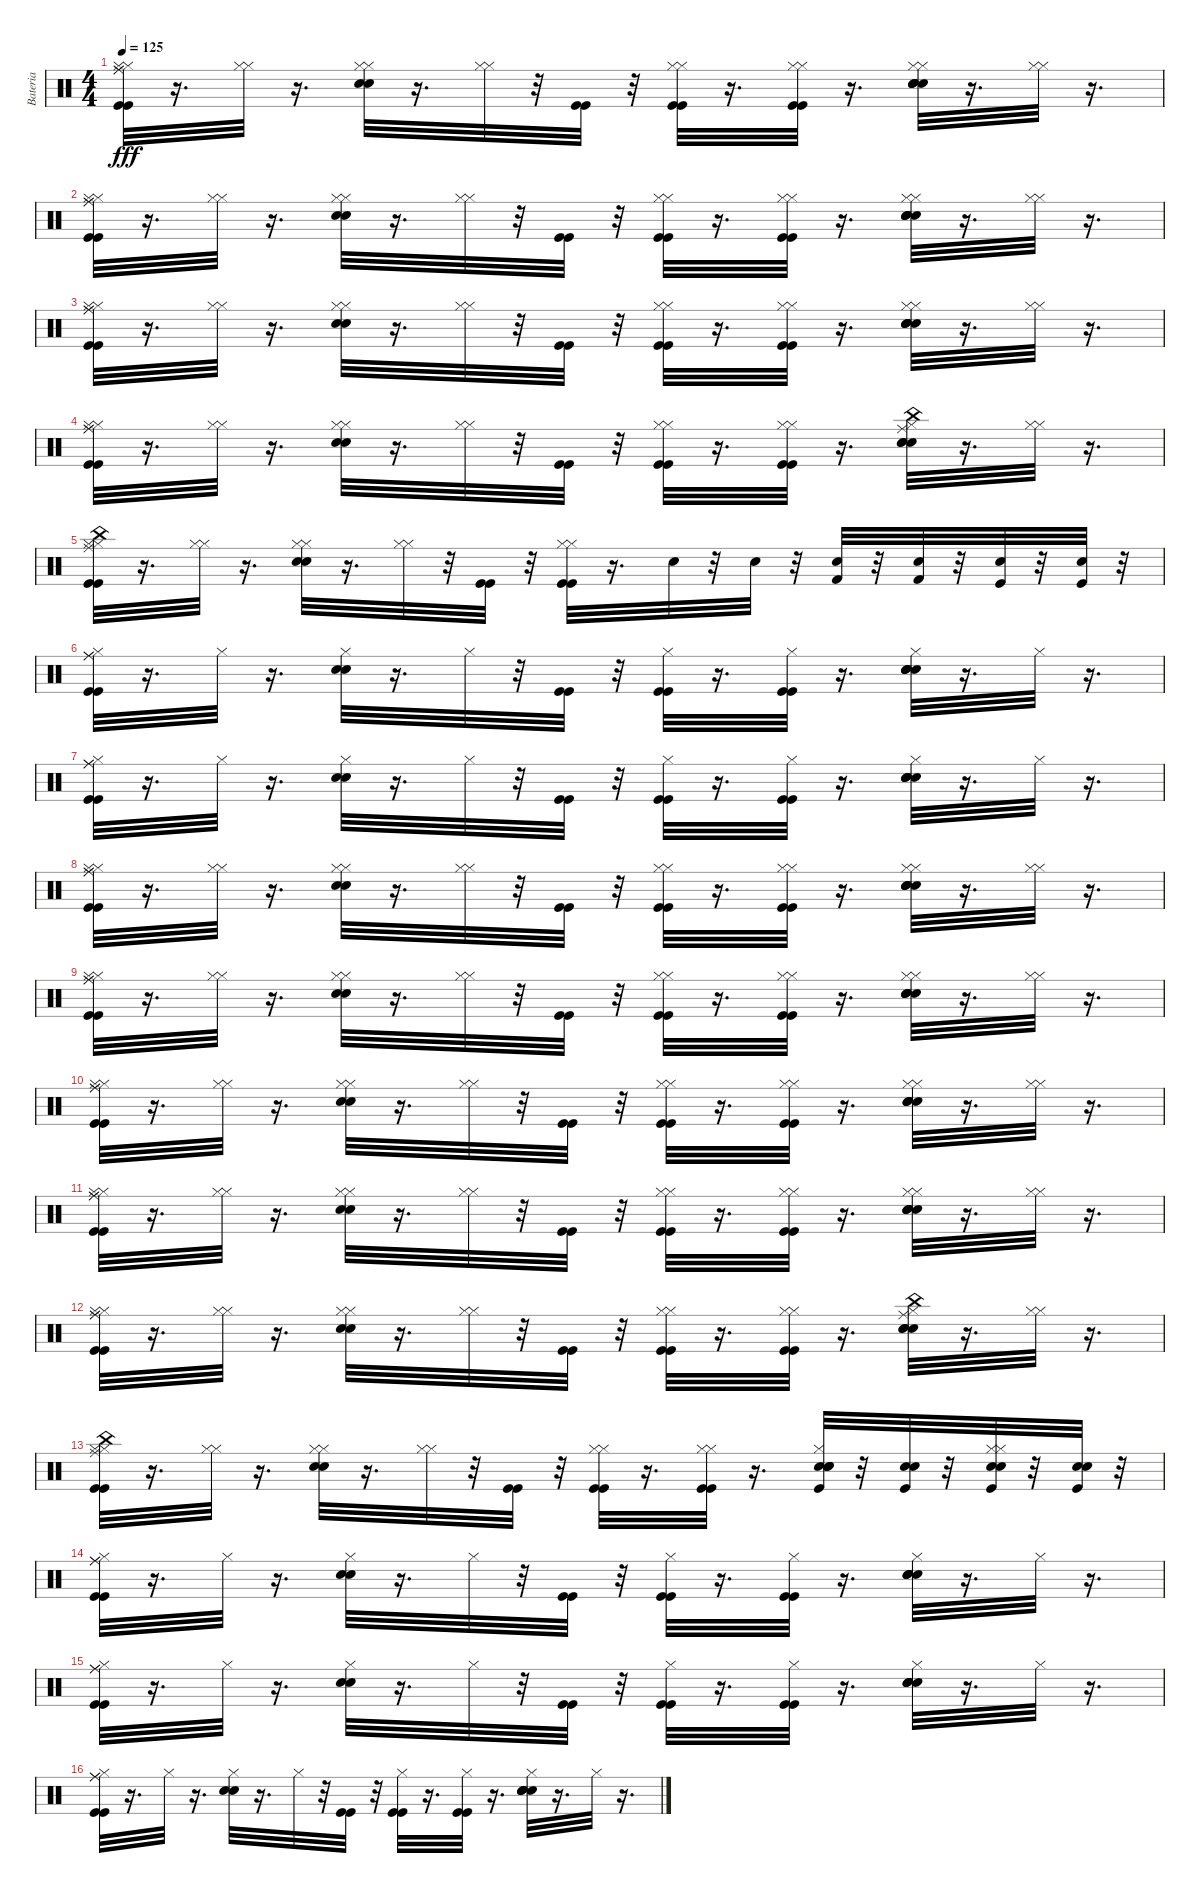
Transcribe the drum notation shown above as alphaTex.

\track ("Bateria" "Bateria") {instrument percussion}
\staff {score}
\articulation defaults
\ts (4 4)
\tempo 125
\clef neutral
\ks c
("Kick (hit)" "Hi-Hat (closed)" "Ride (middle)" "Kick (hit)" "Hi-Hat (closed)" "Ride (middle)").32{dy fff} r.16{d} ("Hi-Hat (closed)" "Hi-Hat (closed)").32 r.16{d} ("Snare (hit) 2" "Electric Snare (hit)" "Hi-Hat (closed)" "Hi-Hat (closed)").32 r.16{d} ("Hi-Hat (closed)" "Hi-Hat (closed)").32 r.32 ("Kick (hit)" "Kick (hit)").32 r.32 ("Kick (hit)" "Hi-Hat (closed)" "Kick (hit)" "Hi-Hat (closed)").32 r.16{d} ("Kick (hit)" "Hi-Hat (closed)" "Kick (hit)" "Hi-Hat (closed)").32 r.16{d} ("Snare (hit) 2" "Electric Snare (hit)" "Hi-Hat (closed)" "Snare (hit) 2" "Electric Snare (hit)" "Hi-Hat (closed)").32 r.16{d} ("Hi-Hat (closed)" "Hi-Hat (closed)").32 r.16{d} |
("Kick (hit)" "Hi-Hat (closed)" "Ride (middle)" "Kick (hit)" "Hi-Hat (closed)" "Ride (middle)").32 r.16{d} ("Hi-Hat (closed)" "Hi-Hat (closed)").32 r.16{d} ("Snare (hit) 2" "Electric Snare (hit)" "Hi-Hat (closed)" "Hi-Hat (closed)").32 r.16{d} ("Hi-Hat (closed)" "Hi-Hat (closed)").32 r.32 ("Kick (hit)" "Kick (hit)").32 r.32 ("Kick (hit)" "Hi-Hat (closed)" "Kick (hit)" "Hi-Hat (closed)").32 r.16{d} ("Kick (hit)" "Hi-Hat (closed)" "Kick (hit)" "Hi-Hat (closed)").32 r.16{d} ("Snare (hit) 2" "Electric Snare (hit)" "Hi-Hat (closed)" "Snare (hit) 2" "Electric Snare (hit)" "Hi-Hat (closed)").32 r.16{d} ("Hi-Hat (closed)" "Hi-Hat (closed)").32 r.16{d} |
("Kick (hit)" "Hi-Hat (closed)" "Ride (middle)" "Kick (hit)" "Hi-Hat (closed)" "Ride (middle)").32 r.16{d} ("Hi-Hat (closed)" "Hi-Hat (closed)").32 r.16{d} ("Snare (hit) 2" "Electric Snare (hit)" "Hi-Hat (closed)" "Hi-Hat (closed)").32 r.16{d} ("Hi-Hat (closed)" "Hi-Hat (closed)").32 r.32 ("Kick (hit)" "Kick (hit)").32 r.32 ("Kick (hit)" "Hi-Hat (closed)" "Kick (hit)" "Hi-Hat (closed)").32 r.16{d} ("Kick (hit)" "Hi-Hat (closed)" "Kick (hit)" "Hi-Hat (closed)").32 r.16{d} ("Snare (hit) 2" "Electric Snare (hit)" "Hi-Hat (closed)" "Snare (hit) 2" "Electric Snare (hit)" "Hi-Hat (closed)").32 r.16{d} ("Hi-Hat (closed)" "Hi-Hat (closed)").32 r.16{d} |
("Kick (hit)" "Hi-Hat (closed)" "Ride (middle)" "Kick (hit)" "Hi-Hat (closed)" "Ride (middle)").32 r.16{d} ("Hi-Hat (closed)" "Hi-Hat (closed)").32 r.16{d} ("Electric Snare (hit)" "Snare (hit) 2" "Hi-Hat (closed)" "Hi-Hat (closed)").32 r.16{d} ("Hi-Hat (closed)" "Hi-Hat (closed)").32 r.32 ("Kick (hit)" "Kick (hit)").32 r.32 ("Kick (hit)" "Hi-Hat (closed)" "Kick (hit)" "Hi-Hat (closed)").32 r.16{d} ("Kick (hit)" "Hi-Hat (closed)" "Kick (hit)" "Hi-Hat (closed)").32 r.16{d} ("Ride (middle)" "China (hit)" "Snare (hit) 2" "Electric Snare (hit)" "Hi-Hat (closed)" "Snare (hit) 2").32 r.16{d} ("Hi-Hat (closed)" "Hi-Hat (closed)").32 r.16{d} |
("China (hit)" "Kick (hit)" "Hi-Hat (closed)" "Ride (middle)" "Kick (hit)" "Hi-Hat (closed)").32 r.16{d} ("Hi-Hat (closed)" "Hi-Hat (closed)").32 r.16{d} ("Snare (hit) 2" "Electric Snare (hit)" "Hi-Hat (closed)" "Hi-Hat (closed)").32 r.16{d} ("Hi-Hat (closed)" "Hi-Hat (closed)").32 r.32 ("Kick (hit)" "Kick (hit)").32 r.32 ("Kick (hit)" "Hi-Hat (closed)" "Kick (hit)" "Hi-Hat (closed)").32 r.16{d} "Electric Snare (hit)".32 r.32 "Electric Snare (hit)".32 r.32 ("Kick (hit) 2" "Electric Snare (hit)").32 r.32 ("Kick (hit) 2" "Electric Snare (hit)").32 r.32 ("Snare (hit) 2" "Kick (hit)").32 r.32 ("Snare (hit) 2" "Kick (hit)").32 r.32 |
("Hi-Hat (closed)" "Kick (hit)" "Ride (middle)" "Kick (hit)" "Ride (middle)").32 r.16{d} "Hi-Hat (closed)".32 r.16{d} ("Snare (hit) 2" "Electric Snare (hit)" "Hi-Hat (closed)").32 r.16{d} "Hi-Hat (closed)".32 r.32 ("Kick (hit)" "Kick (hit)").32 r.32 ("Hi-Hat (closed)" "Kick (hit)" "Kick (hit)").32 r.16{d} ("Hi-Hat (closed)" "Kick (hit)" "Kick (hit)").32 r.16{d} ("Hi-Hat (closed)" "Snare (hit) 2" "Electric Snare (hit)" "Snare (hit) 2" "Electric Snare (hit)").32 r.16{d} "Hi-Hat (closed)".32 r.16{d} |
("Hi-Hat (closed)" "Kick (hit)" "Ride (middle)" "Kick (hit)" "Ride (middle)").32 r.16{d} "Hi-Hat (closed)".32 r.16{d} ("Snare (hit) 2" "Electric Snare (hit)" "Hi-Hat (closed)").32 r.16{d} "Hi-Hat (closed)".32 r.32 ("Kick (hit)" "Kick (hit)").32 r.32 ("Hi-Hat (closed)" "Kick (hit)" "Kick (hit)").32 r.16{d} ("Hi-Hat (closed)" "Kick (hit)" "Kick (hit)").32 r.16{d} ("Hi-Hat (closed)" "Snare (hit) 2" "Electric Snare (hit)" "Snare (hit) 2" "Electric Snare (hit)").32 r.16{d} "Hi-Hat (closed)".32 r.16{d} |
("Kick (hit)" "Hi-Hat (closed)" "Ride (middle)" "Kick (hit)" "Hi-Hat (closed)" "Ride (middle)").32 r.16{d} ("Hi-Hat (closed)" "Hi-Hat (closed)").32 r.16{d} ("Snare (hit) 2" "Electric Snare (hit)" "Hi-Hat (closed)" "Hi-Hat (closed)").32 r.16{d} ("Hi-Hat (closed)" "Hi-Hat (closed)").32 r.32 ("Kick (hit)" "Kick (hit)").32 r.32 ("Kick (hit)" "Hi-Hat (closed)" "Kick (hit)" "Hi-Hat (closed)").32 r.16{d} ("Kick (hit)" "Hi-Hat (closed)" "Kick (hit)" "Hi-Hat (closed)").32 r.16{d} ("Snare (hit) 2" "Electric Snare (hit)" "Hi-Hat (closed)" "Snare (hit) 2" "Electric Snare (hit)" "Hi-Hat (closed)").32 r.16{d} ("Hi-Hat (closed)" "Hi-Hat (closed)").32 r.16{d} |
("Kick (hit)" "Hi-Hat (closed)" "Ride (middle)" "Kick (hit)" "Hi-Hat (closed)" "Ride (middle)").32 r.16{d} ("Hi-Hat (closed)" "Hi-Hat (closed)").32 r.16{d} ("Snare (hit) 2" "Electric Snare (hit)" "Hi-Hat (closed)" "Hi-Hat (closed)").32 r.16{d} ("Hi-Hat (closed)" "Hi-Hat (closed)").32 r.32 ("Kick (hit)" "Kick (hit)").32 r.32 ("Kick (hit)" "Hi-Hat (closed)" "Kick (hit)" "Hi-Hat (closed)").32 r.16{d} ("Kick (hit)" "Hi-Hat (closed)" "Kick (hit)" "Hi-Hat (closed)").32 r.16{d} ("Snare (hit) 2" "Electric Snare (hit)" "Hi-Hat (closed)" "Snare (hit) 2" "Electric Snare (hit)" "Hi-Hat (closed)").32 r.16{d} ("Hi-Hat (closed)" "Hi-Hat (closed)").32 r.16{d} |
("Kick (hit)" "Hi-Hat (closed)" "Ride (middle)" "Kick (hit)" "Hi-Hat (closed)" "Ride (middle)").32 r.16{d} ("Hi-Hat (closed)" "Hi-Hat (closed)").32 r.16{d} ("Snare (hit) 2" "Electric Snare (hit)" "Hi-Hat (closed)" "Hi-Hat (closed)").32 r.16{d} ("Hi-Hat (closed)" "Hi-Hat (closed)").32 r.32 ("Kick (hit)" "Kick (hit)").32 r.32 ("Kick (hit)" "Hi-Hat (closed)" "Kick (hit)" "Hi-Hat (closed)").32 r.16{d} ("Kick (hit)" "Hi-Hat (closed)" "Kick (hit)" "Hi-Hat (closed)").32 r.16{d} ("Snare (hit) 2" "Electric Snare (hit)" "Hi-Hat (closed)" "Snare (hit) 2" "Electric Snare (hit)" "Hi-Hat (closed)").32 r.16{d} ("Hi-Hat (closed)" "Hi-Hat (closed)").32 r.16{d} |
("Kick (hit)" "Hi-Hat (closed)" "Ride (middle)" "Kick (hit)" "Hi-Hat (closed)" "Ride (middle)").32 r.16{d} ("Hi-Hat (closed)" "Hi-Hat (closed)").32 r.16{d} ("Snare (hit) 2" "Electric Snare (hit)" "Hi-Hat (closed)" "Hi-Hat (closed)").32 r.16{d} ("Hi-Hat (closed)" "Hi-Hat (closed)").32 r.32 ("Kick (hit)" "Kick (hit)").32 r.32 ("Kick (hit)" "Hi-Hat (closed)" "Kick (hit)" "Hi-Hat (closed)").32 r.16{d} ("Kick (hit)" "Hi-Hat (closed)" "Kick (hit)" "Hi-Hat (closed)").32 r.16{d} ("Snare (hit) 2" "Electric Snare (hit)" "Hi-Hat (closed)" "Snare (hit) 2" "Electric Snare (hit)" "Hi-Hat (closed)").32 r.16{d} ("Hi-Hat (closed)" "Hi-Hat (closed)").32 r.16{d} |
("Kick (hit)" "Hi-Hat (closed)" "Ride (middle)" "Kick (hit)" "Hi-Hat (closed)" "Ride (middle)").32 r.16{d} ("Hi-Hat (closed)" "Hi-Hat (closed)").32 r.16{d} ("Electric Snare (hit)" "Snare (hit) 2" "Hi-Hat (closed)" "Hi-Hat (closed)").32 r.16{d} ("Hi-Hat (closed)" "Hi-Hat (closed)").32 r.32 ("Kick (hit)" "Kick (hit)").32 r.32 ("Kick (hit)" "Hi-Hat (closed)" "Kick (hit)" "Hi-Hat (closed)").32 r.16{d} ("Kick (hit)" "Hi-Hat (closed)" "Kick (hit)" "Hi-Hat (closed)").32 r.16{d} ("Ride (middle)" "China (hit)" "Snare (hit) 2" "Electric Snare (hit)" "Hi-Hat (closed)" "Snare (hit) 2").32 r.16{d} ("Hi-Hat (closed)" "Hi-Hat (closed)").32 r.16{d} |
("China (hit)" "Kick (hit)" "Hi-Hat (closed)" "Ride (middle)" "Kick (hit)" "Hi-Hat (closed)").32 r.16{d} ("Hi-Hat (closed)" "Hi-Hat (closed)").32 r.16{d} ("Snare (hit) 2" "Electric Snare (hit)" "Hi-Hat (closed)" "Hi-Hat (closed)").32 r.16{d} ("Hi-Hat (closed)" "Hi-Hat (closed)").32 r.32 ("Kick (hit)" "Kick (hit)").32 r.32 ("Kick (hit)" "Hi-Hat (closed)" "Kick (hit)" "Hi-Hat (closed)").32 r.16{d} ("Kick (hit)" "Hi-Hat (closed)" "Kick (hit)" "Hi-Hat (closed)").32 r.16{d} ("Kick (hit)" "Snare (hit) 2" "Electric Snare (hit)" "Hi-Hat (closed)" "Snare (hit) 2" "Electric Snare (hit)").32 r.32 ("Electric Snare (hit)" "Snare (hit) 2" "Kick (hit)").32 r.32 ("Snare (hit) 2" "Electric Snare (hit)" "Kick (hit)" "Hi-Hat (closed)" "Hi-Hat (closed)").32 r.32 ("Electric Snare (hit)" "Snare (hit) 2" "Kick (hit)").32 r.32 |
("Hi-Hat (closed)" "Kick (hit)" "Ride (middle)" "Kick (hit)" "Ride (middle)").32 r.16{d} "Hi-Hat (closed)".32 r.16{d} ("Snare (hit) 2" "Electric Snare (hit)" "Hi-Hat (closed)").32 r.16{d} "Hi-Hat (closed)".32 r.32 ("Kick (hit)" "Kick (hit)").32 r.32 ("Hi-Hat (closed)" "Kick (hit)" "Kick (hit)").32 r.16{d} ("Hi-Hat (closed)" "Kick (hit)" "Kick (hit)").32 r.16{d} ("Hi-Hat (closed)" "Snare (hit) 2" "Electric Snare (hit)" "Snare (hit) 2" "Electric Snare (hit)").32 r.16{d} "Hi-Hat (closed)".32 r.16{d} |
("Hi-Hat (closed)" "Kick (hit)" "Ride (middle)" "Kick (hit)" "Ride (middle)").32 r.16{d} "Hi-Hat (closed)".32 r.16{d} ("Snare (hit) 2" "Electric Snare (hit)" "Hi-Hat (closed)").32 r.16{d} "Hi-Hat (closed)".32 r.32 ("Kick (hit)" "Kick (hit)").32 r.32 ("Hi-Hat (closed)" "Kick (hit)" "Kick (hit)").32 r.16{d} ("Hi-Hat (closed)" "Kick (hit)" "Kick (hit)").32 r.16{d} ("Hi-Hat (closed)" "Snare (hit) 2" "Electric Snare (hit)" "Snare (hit) 2" "Electric Snare (hit)").32 r.16{d} "Hi-Hat (closed)".32 r.16{d} |
("Hi-Hat (closed)" "Kick (hit)" "Ride (middle)" "Kick (hit)" "Ride (middle)").32 r.16{d} "Hi-Hat (closed)".32 r.16{d} ("Snare (hit) 2" "Electric Snare (hit)" "Hi-Hat (closed)").32 r.16{d} "Hi-Hat (closed)".32 r.32 ("Kick (hit)" "Kick (hit)").32 r.32 ("Hi-Hat (closed)" "Kick (hit)" "Kick (hit)").32 r.16{d} ("Hi-Hat (closed)" "Kick (hit)" "Kick (hit)").32 r.16{d} ("Hi-Hat (closed)" "Snare (hit) 2" "Electric Snare (hit)" "Snare (hit) 2" "Electric Snare (hit)").32 r.16{d} "Hi-Hat (closed)".32 r.16{d}
